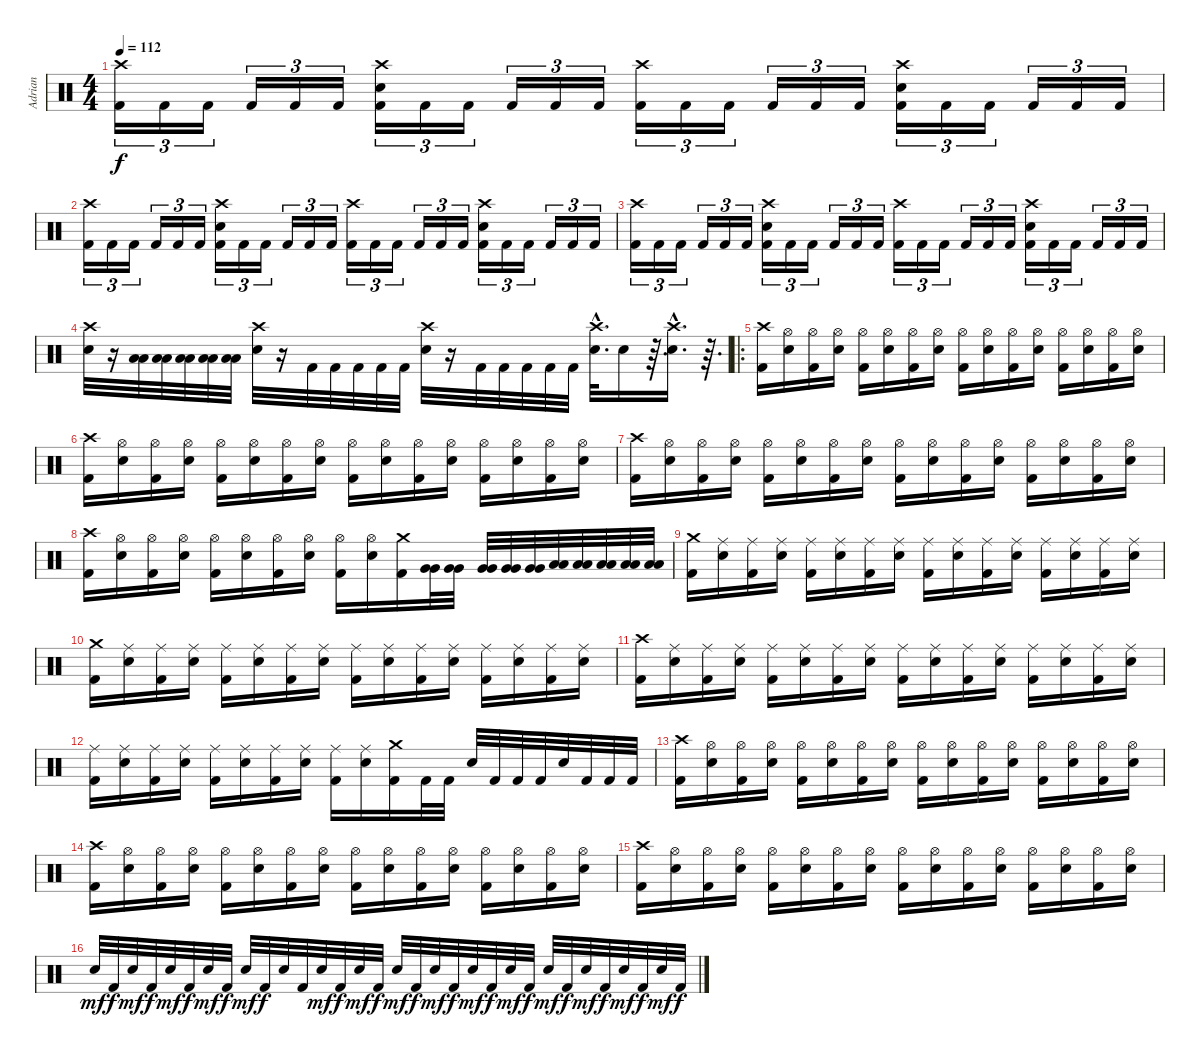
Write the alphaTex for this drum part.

\track ("Adrian" "Adrian") {instrument percussion}
\staff {score}
\articulation defaults
\ts (4 4)
\tempo 112
\clef neutral
\ks c
("Crash high (hit)" "Kick (hit) 2").16{tu (3 2) dy f} "Kick (hit) 2".16{tu (3 2)} "Kick (hit) 2".16{tu (3 2)} "Kick (hit) 2".16{tu (3 2)} "Kick (hit) 2".16{tu (3 2)} "Kick (hit) 2".16{tu (3 2)} ("Crash high (hit)" "Snare (hit) 2" "Kick (hit) 2").16{tu (3 2)} "Kick (hit) 2".16{tu (3 2)} "Kick (hit) 2".16{tu (3 2)} "Kick (hit) 2".16{tu (3 2)} "Kick (hit) 2".16{tu (3 2)} "Kick (hit) 2".16{tu (3 2)} ("Crash high (hit)" "Kick (hit) 2").16{tu (3 2)} "Kick (hit) 2".16{tu (3 2)} "Kick (hit) 2".16{tu (3 2)} "Kick (hit) 2".16{tu (3 2)} "Kick (hit) 2".16{tu (3 2)} "Kick (hit) 2".16{tu (3 2)} ("Crash high (hit)" "Snare (hit) 2" "Kick (hit) 2").16{tu (3 2)} "Kick (hit) 2".16{tu (3 2)} "Kick (hit) 2".16{tu (3 2)} "Kick (hit) 2".16{tu (3 2)} "Kick (hit) 2".16{tu (3 2)} "Kick (hit) 2".16{tu (3 2)} |
("Crash high (hit)" "Kick (hit) 2").16{tu (3 2)} "Kick (hit) 2".16{tu (3 2)} "Kick (hit) 2".16{tu (3 2)} "Kick (hit) 2".16{tu (3 2)} "Kick (hit) 2".16{tu (3 2)} "Kick (hit) 2".16{tu (3 2)} ("Crash high (hit)" "Snare (hit) 2" "Kick (hit) 2").16{tu (3 2)} "Kick (hit) 2".16{tu (3 2)} "Kick (hit) 2".16{tu (3 2)} "Kick (hit) 2".16{tu (3 2)} "Kick (hit) 2".16{tu (3 2)} "Kick (hit) 2".16{tu (3 2)} ("Crash high (hit)" "Kick (hit) 2").16{tu (3 2)} "Kick (hit) 2".16{tu (3 2)} "Kick (hit) 2".16{tu (3 2)} "Kick (hit) 2".16{tu (3 2)} "Kick (hit) 2".16{tu (3 2)} "Kick (hit) 2".16{tu (3 2)} ("Crash high (hit)" "Snare (hit) 2" "Kick (hit) 2").16{tu (3 2)} "Kick (hit) 2".16{tu (3 2)} "Kick (hit) 2".16{tu (3 2)} "Kick (hit) 2".16{tu (3 2)} "Kick (hit) 2".16{tu (3 2)} "Kick (hit) 2".16{tu (3 2)} |
("Crash high (hit)" "Kick (hit) 2").16{tu (3 2)} "Kick (hit) 2".16{tu (3 2)} "Kick (hit) 2".16{tu (3 2)} "Kick (hit) 2".16{tu (3 2)} "Kick (hit) 2".16{tu (3 2)} "Kick (hit) 2".16{tu (3 2)} ("Crash high (hit)" "Snare (hit) 2" "Kick (hit) 2").16{tu (3 2)} "Kick (hit) 2".16{tu (3 2)} "Kick (hit) 2".16{tu (3 2)} "Kick (hit) 2".16{tu (3 2)} "Kick (hit) 2".16{tu (3 2)} "Kick (hit) 2".16{tu (3 2)} ("Crash high (hit)" "Kick (hit) 2").16{tu (3 2)} "Kick (hit) 2".16{tu (3 2)} "Kick (hit) 2".16{tu (3 2)} "Kick (hit) 2".16{tu (3 2)} "Kick (hit) 2".16{tu (3 2)} "Kick (hit) 2".16{tu (3 2)} ("Crash high (hit)" "Snare (hit) 2" "Kick (hit) 2").16{tu (3 2)} "Kick (hit) 2".16{tu (3 2)} "Kick (hit) 2".16{tu (3 2)} "Kick (hit) 2".16{tu (3 2)} "Kick (hit) 2".16{tu (3 2)} "Kick (hit) 2".16{tu (3 2)} |
("Crash high (hit)" "Snare (hit) 2").32 r.16 ("Low Floor Tom (hit)" "Low Floor Tom (hit)").32 ("Low Floor Tom (hit)" "Low Floor Tom (hit)").32 ("Low Floor Tom (hit)" "Low Floor Tom (hit)").32 ("Low Floor Tom (hit)" "Low Floor Tom (hit)").32 ("Low Floor Tom (hit)" "Low Floor Tom (hit)").32 ("Crash high (hit)" "Snare (hit) 2").32 r.16 "Kick (hit) 2".32 "Kick (hit) 2".32 "Kick (hit) 2".32 "Kick (hit) 2".32 "Kick (hit) 2".32 ("Crash high (hit)" "Snare (hit) 2").32 r.16 "Kick (hit) 2".32 "Kick (hit) 2".32 "Kick (hit) 2".32 "Kick (hit) 2".32 "Kick (hit) 2".32 ("Crash high (hit)"{hac} "Snare (hit) 2"{hac}).32{d} "Snare (hit) 2".16 r.64{d} ("Crash high (hit)"{hac} "Snare (hit) 2"{hac}).16{d} r.64{d} |
\ro
("Crash high (hit)" "Kick (hit) 2").16 ("Hi-Hat (open)" "Snare (hit) 2").16 ("Hi-Hat (open)" "Kick (hit) 2").16 ("Hi-Hat (open)" "Snare (hit) 2").16 ("Hi-Hat (open)" "Kick (hit) 2").16 ("Hi-Hat (open)" "Snare (hit) 2").16 ("Hi-Hat (open)" "Kick (hit) 2").16 ("Hi-Hat (open)" "Snare (hit) 2").16 ("Hi-Hat (open)" "Kick (hit) 2").16 ("Hi-Hat (open)" "Snare (hit) 2").16 ("Hi-Hat (open)" "Kick (hit) 2").16 ("Hi-Hat (open)" "Snare (hit) 2").16 ("Hi-Hat (open)" "Kick (hit) 2").16 ("Hi-Hat (open)" "Snare (hit) 2").16 ("Hi-Hat (open)" "Kick (hit) 2").16 ("Hi-Hat (open)" "Snare (hit) 2").16 |
("Crash high (hit)" "Kick (hit) 2").16 ("Hi-Hat (open)" "Snare (hit) 2").16 ("Hi-Hat (open)" "Kick (hit) 2").16 ("Hi-Hat (open)" "Snare (hit) 2").16 ("Hi-Hat (open)" "Kick (hit) 2").16 ("Hi-Hat (open)" "Snare (hit) 2").16 ("Hi-Hat (open)" "Kick (hit) 2").16 ("Hi-Hat (open)" "Snare (hit) 2").16 ("Hi-Hat (open)" "Kick (hit) 2").16 ("Hi-Hat (open)" "Snare (hit) 2").16 ("Hi-Hat (open)" "Kick (hit) 2").16 ("Hi-Hat (open)" "Snare (hit) 2").16 ("Hi-Hat (open)" "Kick (hit) 2").16 ("Hi-Hat (open)" "Snare (hit) 2").16 ("Hi-Hat (open)" "Kick (hit) 2").16 ("Hi-Hat (open)" "Snare (hit) 2").16 |
("Crash high (hit)" "Kick (hit) 2").16 ("Hi-Hat (open)" "Snare (hit) 2").16 ("Hi-Hat (open)" "Kick (hit) 2").16 ("Hi-Hat (open)" "Snare (hit) 2").16 ("Hi-Hat (open)" "Kick (hit) 2").16 ("Hi-Hat (open)" "Snare (hit) 2").16 ("Hi-Hat (open)" "Kick (hit) 2").16 ("Hi-Hat (open)" "Snare (hit) 2").16 ("Hi-Hat (open)" "Kick (hit) 2").16 ("Hi-Hat (open)" "Snare (hit) 2").16 ("Hi-Hat (open)" "Kick (hit) 2").16 ("Hi-Hat (open)" "Snare (hit) 2").16 ("Hi-Hat (open)" "Kick (hit) 2").16 ("Hi-Hat (open)" "Snare (hit) 2").16 ("Hi-Hat (open)" "Kick (hit) 2").16 ("Hi-Hat (open)" "Snare (hit) 2").16 |
("Crash high (hit)" "Kick (hit) 2").16 ("Hi-Hat (open)" "Snare (hit) 2").16 ("Hi-Hat (open)" "Kick (hit) 2").16 ("Hi-Hat (open)" "Snare (hit) 2").16 ("Hi-Hat (open)" "Kick (hit) 2").16 ("Hi-Hat (open)" "Snare (hit) 2").16 ("Hi-Hat (open)" "Kick (hit) 2").16 ("Hi-Hat (open)" "Snare (hit) 2").16 ("Hi-Hat (open)" "Kick (hit) 2").16 ("Hi-Hat (open)" "Snare (hit) 2").16 ("Crash medium (hit)" "Kick (hit) 2").16 ("Very Low Tom (hit)" "Very Low Tom (hit)").32 ("Very Low Tom (hit)" "Very Low Tom (hit)").32 ("Very Low Tom (hit)" "Very Low Tom (hit)").32 ("Very Low Tom (hit)" "Very Low Tom (hit)").32 ("Very Low Tom (hit)" "Very Low Tom (hit)").32 ("Low Floor Tom (hit)" "Low Floor Tom (hit)").32 ("Low Floor Tom (hit)" "Low Floor Tom (hit)").32 ("Low Floor Tom (hit)" "Low Floor Tom (hit)").32 ("Low Floor Tom (hit)" "Low Floor Tom (hit)").32 ("Low Floor Tom (hit)" "Low Floor Tom (hit)").32 |
("Crash medium (hit)" "Kick (hit) 2").16 ("Ride (middle)" "Snare (hit) 2").16 ("Ride (middle)" "Kick (hit) 2").16 ("Ride (middle)" "Snare (hit) 2").16 ("Ride (middle)" "Kick (hit) 2").16 ("Ride (middle)" "Snare (hit) 2").16 ("Ride (middle)" "Kick (hit) 2").16 ("Ride (middle)" "Snare (hit) 2").16 ("Ride (middle)" "Kick (hit) 2").16 ("Ride (middle)" "Snare (hit) 2").16 ("Ride (middle)" "Kick (hit) 2").16 ("Ride (middle)" "Snare (hit) 2").16 ("Ride (middle)" "Kick (hit) 2").16 ("Ride (middle)" "Snare (hit) 2").16 ("Ride (middle)" "Kick (hit) 2").16 ("Ride (middle)" "Snare (hit) 2").16 |
("Crash medium (hit)" "Kick (hit) 2").16 ("Ride (middle)" "Snare (hit) 2").16 ("Ride (middle)" "Kick (hit) 2").16 ("Ride (middle)" "Snare (hit) 2").16 ("Ride (middle)" "Kick (hit) 2").16 ("Ride (middle)" "Snare (hit) 2").16 ("Ride (middle)" "Kick (hit) 2").16 ("Ride (middle)" "Snare (hit) 2").16 ("Ride (middle)" "Kick (hit) 2").16 ("Ride (middle)" "Snare (hit) 2").16 ("Ride (middle)" "Kick (hit) 2").16 ("Ride (middle)" "Snare (hit) 2").16 ("Ride (middle)" "Kick (hit) 2").16 ("Ride (middle)" "Snare (hit) 2").16 ("Ride (middle)" "Kick (hit) 2").16 ("Ride (middle)" "Snare (hit) 2").16 |
("Crash high (hit)" "Kick (hit) 2").16 ("Ride (middle)" "Snare (hit) 2").16 ("Ride (middle)" "Kick (hit) 2").16 ("Ride (middle)" "Snare (hit) 2").16 ("Ride (middle)" "Kick (hit) 2").16 ("Ride (middle)" "Snare (hit) 2").16 ("Ride (middle)" "Kick (hit) 2").16 ("Ride (middle)" "Snare (hit) 2").16 ("Ride (middle)" "Kick (hit) 2").16 ("Ride (middle)" "Snare (hit) 2").16 ("Ride (middle)" "Kick (hit) 2").16 ("Ride (middle)" "Snare (hit) 2").16 ("Ride (middle)" "Kick (hit) 2").16 ("Ride (middle)" "Snare (hit) 2").16 ("Ride (middle)" "Kick (hit) 2").16 ("Ride (middle)" "Snare (hit) 2").16 |
("Ride (middle)" "Kick (hit) 2").16 ("Ride (middle)" "Snare (hit) 2").16 ("Ride (middle)" "Kick (hit) 2").16 ("Ride (middle)" "Snare (hit) 2").16 ("Ride (middle)" "Kick (hit) 2").16 ("Ride (middle)" "Snare (hit) 2").16 ("Ride (middle)" "Kick (hit) 2").16 ("Ride (middle)" "Snare (hit) 2").16 ("Ride (middle)" "Kick (hit) 2").16 ("Ride (middle)" "Snare (hit) 2").16 ("Crash medium (hit)" "Kick (hit) 2").16 "Kick (hit) 2".32 "Kick (hit) 2".32 "Snare (hit) 2".32 "Kick (hit) 2".32 "Kick (hit) 2".32 "Kick (hit) 2".32 "Snare (hit) 2".32 "Kick (hit) 2".32 "Kick (hit) 2".32 "Kick (hit) 2".32 |
("Crash high (hit)" "Kick (hit) 2").16 ("Hi-Hat (open)" "Snare (hit) 2").16 ("Hi-Hat (open)" "Kick (hit) 2").16 ("Hi-Hat (open)" "Snare (hit) 2").16 ("Hi-Hat (open)" "Kick (hit) 2").16 ("Hi-Hat (open)" "Snare (hit) 2").16 ("Hi-Hat (open)" "Kick (hit) 2").16 ("Hi-Hat (open)" "Snare (hit) 2").16 ("Hi-Hat (open)" "Kick (hit) 2").16 ("Hi-Hat (open)" "Snare (hit) 2").16 ("Hi-Hat (open)" "Kick (hit) 2").16 ("Hi-Hat (open)" "Snare (hit) 2").16 ("Hi-Hat (open)" "Kick (hit) 2").16 ("Hi-Hat (open)" "Snare (hit) 2").16 ("Hi-Hat (open)" "Kick (hit) 2").16 ("Hi-Hat (open)" "Snare (hit) 2").16 |
("Crash high (hit)" "Kick (hit) 2").16 ("Hi-Hat (open)" "Snare (hit) 2").16 ("Hi-Hat (open)" "Kick (hit) 2").16 ("Hi-Hat (open)" "Snare (hit) 2").16 ("Hi-Hat (open)" "Kick (hit) 2").16 ("Hi-Hat (open)" "Snare (hit) 2").16 ("Hi-Hat (open)" "Kick (hit) 2").16 ("Hi-Hat (open)" "Snare (hit) 2").16 ("Hi-Hat (open)" "Kick (hit) 2").16 ("Hi-Hat (open)" "Snare (hit) 2").16 ("Hi-Hat (open)" "Kick (hit) 2").16 ("Hi-Hat (open)" "Snare (hit) 2").16 ("Hi-Hat (open)" "Kick (hit) 2").16 ("Hi-Hat (open)" "Snare (hit) 2").16 ("Hi-Hat (open)" "Kick (hit) 2").16 ("Hi-Hat (open)" "Snare (hit) 2").16 |
("Crash high (hit)" "Kick (hit) 2").16 ("Hi-Hat (open)" "Snare (hit) 2").16 ("Hi-Hat (open)" "Kick (hit) 2").16 ("Hi-Hat (open)" "Snare (hit) 2").16 ("Hi-Hat (open)" "Kick (hit) 2").16 ("Hi-Hat (open)" "Snare (hit) 2").16 ("Hi-Hat (open)" "Kick (hit) 2").16 ("Hi-Hat (open)" "Snare (hit) 2").16 ("Hi-Hat (open)" "Kick (hit) 2").16 ("Hi-Hat (open)" "Snare (hit) 2").16 ("Hi-Hat (open)" "Kick (hit) 2").16 ("Hi-Hat (open)" "Snare (hit) 2").16 ("Hi-Hat (open)" "Kick (hit) 2").16 ("Hi-Hat (open)" "Snare (hit) 2").16 ("Hi-Hat (open)" "Kick (hit) 2").16 ("Hi-Hat (open)" "Snare (hit) 2").16 |
"Snare (hit) 2".32{dy mf} "Kick (hit) 2".32{dy f} "Snare (hit) 2".32{dy mf} "Kick (hit) 2".32{dy f} "Snare (hit) 2".32{dy mf} "Kick (hit) 2".32{dy f} "Snare (hit) 2".32{dy mf} "Kick (hit) 2".32{dy f} "Snare (hit) 2".32{dy mf} "Kick (hit) 2".32{dy f} "Snare (hit) 2".32 "Kick (hit) 2".32 "Snare (hit) 2".32{dy mf} "Kick (hit) 2".32{dy f} "Snare (hit) 2".32{dy mf} "Kick (hit) 2".32{dy f} "Snare (hit) 2".32{dy mf} "Kick (hit) 2".32{dy f} "Snare (hit) 2".32{dy mf} "Kick (hit) 2".32{dy f} "Snare (hit) 2".32{dy mf} "Kick (hit) 2".32{dy f} "Snare (hit) 2".32{dy mf} "Kick (hit) 2".32{dy f} "Snare (hit) 2".32{dy mf} "Kick (hit) 2".32{dy f} "Snare (hit) 2".32{dy mf} "Kick (hit) 2".32{dy f} "Snare (hit) 2".32{dy mf} "Kick (hit) 2".32{dy f} "Snare (hit) 2".32{dy mf} "Kick (hit) 2".32{dy f}
